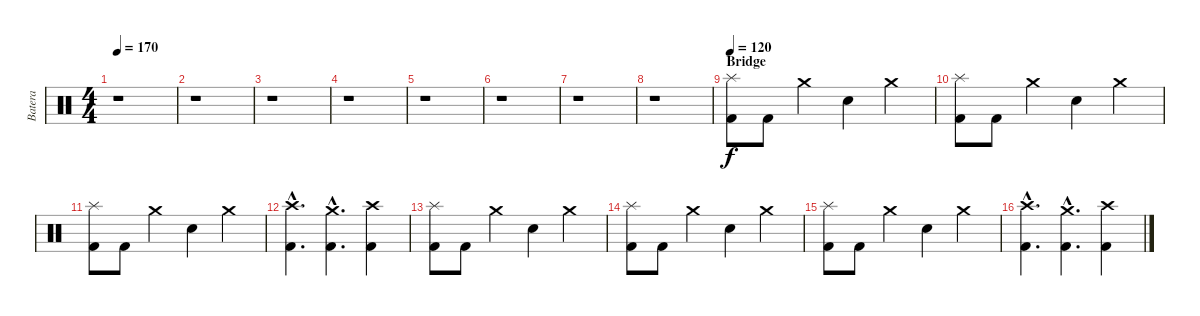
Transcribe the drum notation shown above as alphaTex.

\track ("Batera" "Batera") {instrument percussion}
\staff {score}
\articulation defaults
\ts (4 4)
\tempo 170
\clef neutral
\ks c
r.1{dy f} |
r.1 |
r.1 |
r.1 |
r.1 |
r.1 |
r.1 |
r.1 |
\section ("" "Bridge")
\tempo 120
("Splash (hit)" "Kick (hit) 2").8 "Kick (hit) 2".8 "Crash medium (hit)".4 "Electric Snare (hit)".4 "Crash medium (hit)".4 |
("Splash (hit)" "Kick (hit) 2").8 "Kick (hit) 2".8 "Crash medium (hit)".4 "Electric Snare (hit)".4 "Crash medium (hit)".4 |
("Splash (hit)" "Kick (hit) 2").8 "Kick (hit) 2".8 "Crash medium (hit)".4 "Electric Snare (hit)".4 "Crash medium (hit)".4 |
("Crash high (hit)"{hac} "Kick (hit) 2"{hac}).4{d} ("Crash medium (hit)"{hac} "Kick (hit) 2"{hac}).4{d} ("Crash high (hit)" "Kick (hit) 2").4 |
("Splash (hit)" "Kick (hit) 2").8 "Kick (hit) 2".8 "Crash medium (hit)".4 "Electric Snare (hit)".4 "Crash medium (hit)".4 |
("Splash (hit)" "Kick (hit) 2").8 "Kick (hit) 2".8 "Crash medium (hit)".4 "Electric Snare (hit)".4 "Crash medium (hit)".4 |
("Splash (hit)" "Kick (hit) 2").8 "Kick (hit) 2".8 "Crash medium (hit)".4 "Electric Snare (hit)".4 "Crash medium (hit)".4 |
("Crash high (hit)"{hac} "Kick (hit) 2"{hac}).4{d} ("Crash medium (hit)"{hac} "Kick (hit) 2"{hac}).4{d} ("Crash high (hit)" "Kick (hit) 2").4
